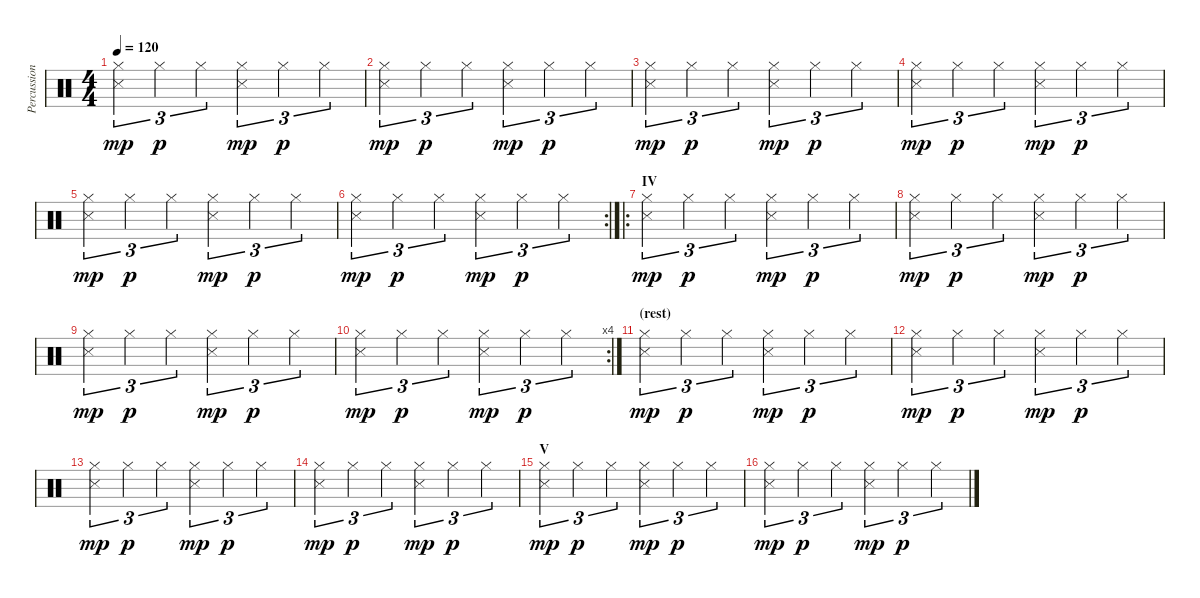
\track ("Percussion" "Percussion") {instrument percussion}
\staff {score}
\articulation defaults
\ts (4 4)
\tempo 120
\clef neutral
\ks c
("Hi-Hat (closed)" "Snare (side stick) 3").4{tu (3 2) dy mp} "Hi-Hat (closed)".4{tu (3 2) dy p} "Hi-Hat (closed)".4{tu (3 2)} ("Hi-Hat (closed)" "Snare (side stick) 3").4{tu (3 2) dy mp} "Hi-Hat (closed)".4{tu (3 2) dy p} "Hi-Hat (closed)".4{tu (3 2)} |
("Hi-Hat (closed)" "Snare (side stick) 3").4{tu (3 2) dy mp} "Hi-Hat (closed)".4{tu (3 2) dy p} "Hi-Hat (closed)".4{tu (3 2)} ("Hi-Hat (closed)" "Snare (side stick) 3").4{tu (3 2) dy mp} "Hi-Hat (closed)".4{tu (3 2) dy p} "Hi-Hat (closed)".4{tu (3 2)} |
("Hi-Hat (closed)" "Snare (side stick) 3").4{tu (3 2) dy mp} "Hi-Hat (closed)".4{tu (3 2) dy p} "Hi-Hat (closed)".4{tu (3 2)} ("Hi-Hat (closed)" "Snare (side stick) 3").4{tu (3 2) dy mp} "Hi-Hat (closed)".4{tu (3 2) dy p} "Hi-Hat (closed)".4{tu (3 2)} |
("Hi-Hat (closed)" "Snare (side stick) 3").4{tu (3 2) dy mp} "Hi-Hat (closed)".4{tu (3 2) dy p} "Hi-Hat (closed)".4{tu (3 2)} ("Hi-Hat (closed)" "Snare (side stick) 3").4{tu (3 2) dy mp} "Hi-Hat (closed)".4{tu (3 2) dy p} "Hi-Hat (closed)".4{tu (3 2)} |
("Hi-Hat (closed)" "Snare (side stick) 3").4{tu (3 2) dy mp} "Hi-Hat (closed)".4{tu (3 2) dy p} "Hi-Hat (closed)".4{tu (3 2)} ("Hi-Hat (closed)" "Snare (side stick) 3").4{tu (3 2) dy mp} "Hi-Hat (closed)".4{tu (3 2) dy p} "Hi-Hat (closed)".4{tu (3 2)} |
\rc 2
("Hi-Hat (closed)" "Snare (side stick) 3").4{tu (3 2) dy mp} "Hi-Hat (closed)".4{tu (3 2) dy p} "Hi-Hat (closed)".4{tu (3 2)} ("Hi-Hat (closed)" "Snare (side stick) 3").4{tu (3 2) dy mp} "Hi-Hat (closed)".4{tu (3 2) dy p} "Hi-Hat (closed)".4{tu (3 2)} |
\ro
\section ("" "IV")
("Hi-Hat (closed)" "Snare (side stick) 3").4{tu (3 2) dy mp} "Hi-Hat (closed)".4{tu (3 2) dy p} "Hi-Hat (closed)".4{tu (3 2)} ("Hi-Hat (closed)" "Snare (side stick) 3").4{tu (3 2) dy mp} "Hi-Hat (closed)".4{tu (3 2) dy p} "Hi-Hat (closed)".4{tu (3 2)} |
("Hi-Hat (closed)" "Snare (side stick) 3").4{tu (3 2) dy mp} "Hi-Hat (closed)".4{tu (3 2) dy p} "Hi-Hat (closed)".4{tu (3 2)} ("Hi-Hat (closed)" "Snare (side stick) 3").4{tu (3 2) dy mp} "Hi-Hat (closed)".4{tu (3 2) dy p} "Hi-Hat (closed)".4{tu (3 2)} |
("Hi-Hat (closed)" "Snare (side stick) 3").4{tu (3 2) dy mp} "Hi-Hat (closed)".4{tu (3 2) dy p} "Hi-Hat (closed)".4{tu (3 2)} ("Hi-Hat (closed)" "Snare (side stick) 3").4{tu (3 2) dy mp} "Hi-Hat (closed)".4{tu (3 2) dy p} "Hi-Hat (closed)".4{tu (3 2)} |
\rc 4
("Hi-Hat (closed)" "Snare (side stick) 3").4{tu (3 2) dy mp} "Hi-Hat (closed)".4{tu (3 2) dy p} "Hi-Hat (closed)".4{tu (3 2)} ("Hi-Hat (closed)" "Snare (side stick) 3").4{tu (3 2) dy mp} "Hi-Hat (closed)".4{tu (3 2) dy p} "Hi-Hat (closed)".4{tu (3 2)} |
\section ("" "(rest)")
("Hi-Hat (closed)" "Snare (side stick) 3").4{tu (3 2) dy mp} "Hi-Hat (closed)".4{tu (3 2) dy p} "Hi-Hat (closed)".4{tu (3 2)} ("Hi-Hat (closed)" "Snare (side stick) 3").4{tu (3 2) dy mp} "Hi-Hat (closed)".4{tu (3 2) dy p} "Hi-Hat (closed)".4{tu (3 2)} |
("Hi-Hat (closed)" "Snare (side stick) 3").4{tu (3 2) dy mp} "Hi-Hat (closed)".4{tu (3 2) dy p} "Hi-Hat (closed)".4{tu (3 2)} ("Hi-Hat (closed)" "Snare (side stick) 3").4{tu (3 2) dy mp} "Hi-Hat (closed)".4{tu (3 2) dy p} "Hi-Hat (closed)".4{tu (3 2)} |
("Hi-Hat (closed)" "Snare (side stick) 3").4{tu (3 2) dy mp} "Hi-Hat (closed)".4{tu (3 2) dy p} "Hi-Hat (closed)".4{tu (3 2)} ("Hi-Hat (closed)" "Snare (side stick) 3").4{tu (3 2) dy mp} "Hi-Hat (closed)".4{tu (3 2) dy p} "Hi-Hat (closed)".4{tu (3 2)} |
("Hi-Hat (closed)" "Snare (side stick) 3").4{tu (3 2) dy mp} "Hi-Hat (closed)".4{tu (3 2) dy p} "Hi-Hat (closed)".4{tu (3 2)} ("Hi-Hat (closed)" "Snare (side stick) 3").4{tu (3 2) dy mp} "Hi-Hat (closed)".4{tu (3 2) dy p} "Hi-Hat (closed)".4{tu (3 2)} |
\section ("" "V")
("Hi-Hat (closed)" "Snare (side stick) 3").4{tu (3 2) dy mp} "Hi-Hat (closed)".4{tu (3 2) dy p} "Hi-Hat (closed)".4{tu (3 2)} ("Hi-Hat (closed)" "Snare (side stick) 3").4{tu (3 2) dy mp} "Hi-Hat (closed)".4{tu (3 2) dy p} "Hi-Hat (closed)".4{tu (3 2)} |
("Hi-Hat (closed)" "Snare (side stick) 3").4{tu (3 2) dy mp} "Hi-Hat (closed)".4{tu (3 2) dy p} "Hi-Hat (closed)".4{tu (3 2)} ("Hi-Hat (closed)" "Snare (side stick) 3").4{tu (3 2) dy mp} "Hi-Hat (closed)".4{tu (3 2) dy p} "Hi-Hat (closed)".4{tu (3 2)}
